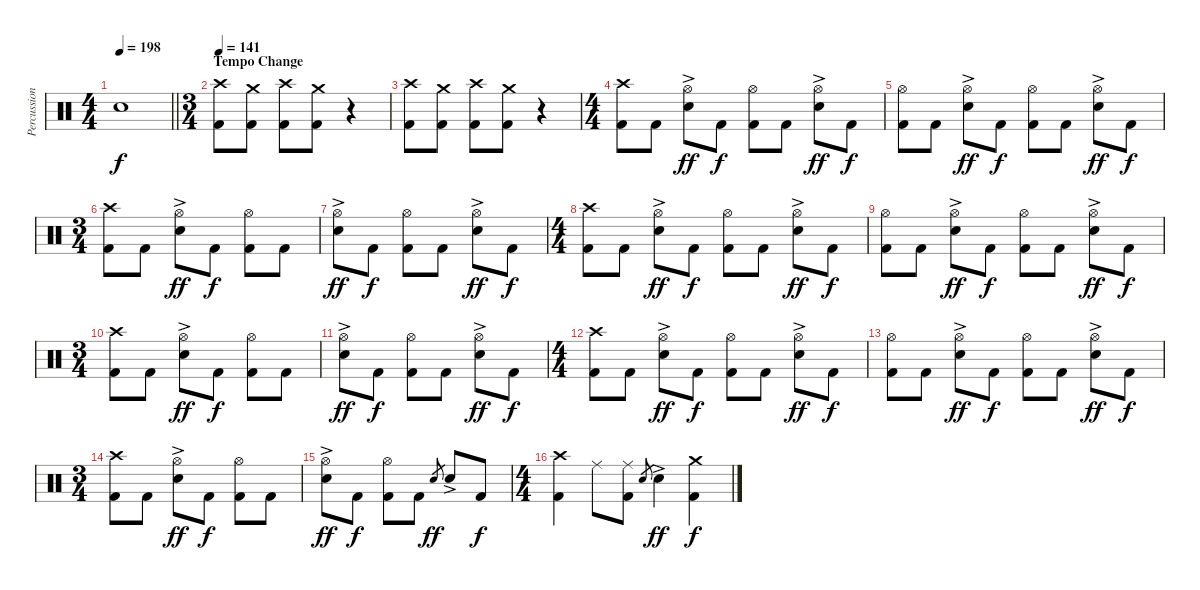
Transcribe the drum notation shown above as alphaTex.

\track ("Percussion" "Percussion") {instrument percussion}
\staff {score}
\articulation defaults
\ts (4 4)
\tempo 198
\clef neutral
\barLineRight lightlight
\ks c "Snare (hit)"{t}.1{dy f}
|
\ts (3 4)
\section ("" "Tempo Change")
\tempo 141
("Crash high (hit)" "Kick (hit) 2").8 ("Crash medium (hit)" "Kick (hit) 2").8 ("Crash high (hit)" "Kick (hit) 2").8 ("Crash medium (hit)" "Kick (hit) 2").8 r.4 |
("Crash high (hit)" "Kick (hit) 2").8 ("Crash medium (hit)" "Kick (hit) 2").8 ("Crash high (hit)" "Kick (hit) 2").8 ("Crash medium (hit)" "Kick (hit) 2").8 r.4 |
\ts (4 4)
("Crash high (hit)" "Kick (hit) 2").8 "Kick (hit) 2".8 ("Hi-Hat (open)" "Electric Snare (hit)"{ac}).8{dy ff} "Kick (hit) 2".8{dy f} ("Hi-Hat (open)" "Kick (hit) 2").8 "Kick (hit) 2".8 ("Hi-Hat (open)" "Electric Snare (hit)"{ac}).8{dy ff} "Kick (hit) 2".8{dy f} |
("Hi-Hat (open)" "Kick (hit) 2").8 "Kick (hit) 2".8 ("Hi-Hat (open)" "Electric Snare (hit)"{ac}).8{dy ff} "Kick (hit) 2".8{dy f} ("Hi-Hat (open)" "Kick (hit) 2").8 "Kick (hit) 2".8 ("Hi-Hat (open)" "Electric Snare (hit)"{ac}).8{dy ff} "Kick (hit) 2".8{dy f} |
\ts (3 4)
("Crash high (hit)" "Kick (hit) 2").8 "Kick (hit) 2".8 ("Hi-Hat (open)" "Electric Snare (hit)"{ac}).8{dy ff} "Kick (hit) 2".8{dy f} ("Hi-Hat (open)" "Kick (hit) 2").8 "Kick (hit) 2".8 |
("Hi-Hat (open)" "Electric Snare (hit)"{ac}).8{dy ff} "Kick (hit) 2".8{dy f} ("Hi-Hat (open)" "Kick (hit) 2").8 "Kick (hit) 2".8 ("Hi-Hat (open)" "Electric Snare (hit)"{ac}).8{dy ff} "Kick (hit) 2".8{dy f} |
\ts (4 4)
("Crash high (hit)" "Kick (hit) 2").8 "Kick (hit) 2".8 ("Hi-Hat (open)" "Electric Snare (hit)"{ac}).8{dy ff} "Kick (hit) 2".8{dy f} ("Hi-Hat (open)" "Kick (hit) 2").8 "Kick (hit) 2".8 ("Hi-Hat (open)" "Electric Snare (hit)"{ac}).8{dy ff} "Kick (hit) 2".8{dy f} |
("Hi-Hat (open)" "Kick (hit) 2").8 "Kick (hit) 2".8 ("Hi-Hat (open)" "Electric Snare (hit)"{ac}).8{dy ff} "Kick (hit) 2".8{dy f} ("Hi-Hat (open)" "Kick (hit) 2").8 "Kick (hit) 2".8 ("Hi-Hat (open)" "Electric Snare (hit)"{ac}).8{dy ff} "Kick (hit) 2".8{dy f} |
\ts (3 4)
("Crash high (hit)" "Kick (hit) 2").8 "Kick (hit) 2".8 ("Hi-Hat (open)" "Electric Snare (hit)"{ac}).8{dy ff} "Kick (hit) 2".8{dy f} ("Hi-Hat (open)" "Kick (hit) 2").8 "Kick (hit) 2".8 |
("Hi-Hat (open)" "Electric Snare (hit)"{ac}).8{dy ff} "Kick (hit) 2".8{dy f} ("Hi-Hat (open)" "Kick (hit) 2").8 "Kick (hit) 2".8 ("Hi-Hat (open)" "Electric Snare (hit)"{ac}).8{dy ff} "Kick (hit) 2".8{dy f} |
\ts (4 4)
("Crash high (hit)" "Kick (hit) 2").8 "Kick (hit) 2".8 ("Hi-Hat (open)" "Electric Snare (hit)"{ac}).8{dy ff} "Kick (hit) 2".8{dy f} ("Hi-Hat (open)" "Kick (hit) 2").8 "Kick (hit) 2".8 ("Hi-Hat (open)" "Electric Snare (hit)"{ac}).8{dy ff} "Kick (hit) 2".8{dy f} |
("Hi-Hat (open)" "Kick (hit) 2").8 "Kick (hit) 2".8 ("Hi-Hat (open)" "Electric Snare (hit)"{ac}).8{dy ff} "Kick (hit) 2".8{dy f} ("Hi-Hat (open)" "Kick (hit) 2").8 "Kick (hit) 2".8 ("Hi-Hat (open)" "Electric Snare (hit)"{ac}).8{dy ff} "Kick (hit) 2".8{dy f} |
\ts (3 4)
("Crash high (hit)" "Kick (hit) 2").8 "Kick (hit) 2".8 ("Hi-Hat (open)" "Electric Snare (hit)"{ac}).8{dy ff} "Kick (hit) 2".8{dy f} ("Hi-Hat (open)" "Kick (hit) 2").8 "Kick (hit) 2".8 |
("Hi-Hat (open)" "Electric Snare (hit)"{ac}).8{dy ff} "Kick (hit) 2".8{dy f} ("Hi-Hat (open)" "Kick (hit) 2").8 "Kick (hit) 2".8 "Electric Snare (hit)".8{gr dy ff} "Electric Snare (hit)"{ac}.8 "Kick (hit) 2".8{dy f} |
\ts (4 4)
("Crash high (hit)" "Kick (hit) 2").4 "Ride (middle)".8 ("Ride (middle)" "Kick (hit) 2").8 "Electric Snare (hit)".8{gr} "Electric Snare (hit)"{ac}.4{dy ff} ("Crash medium (hit)" "Kick (hit) 2").4{dy f}
